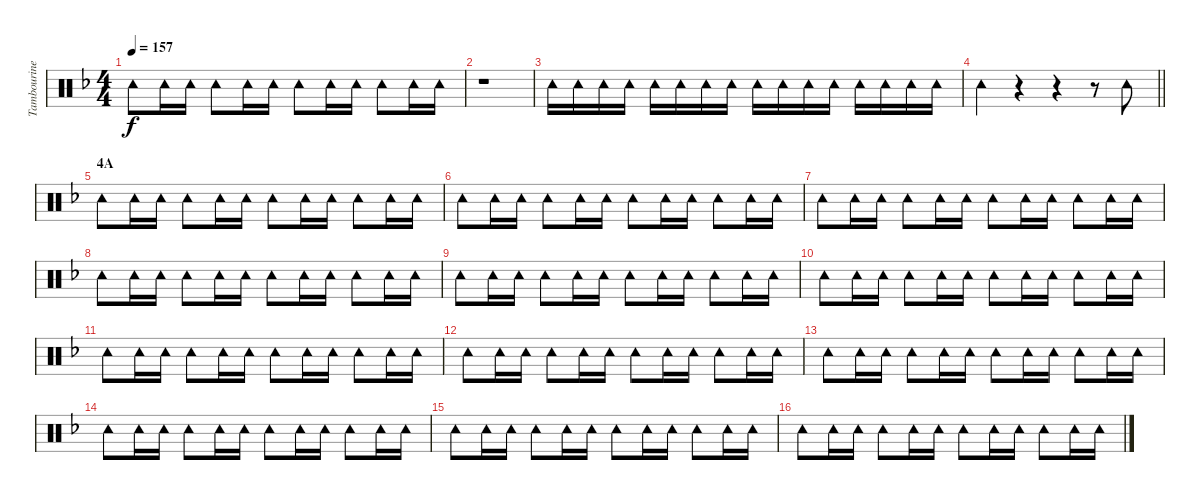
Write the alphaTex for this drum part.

\track ("Tambourine" "Tambourine") {instrument percussion}
\staff {score}
\articulation defaults
\ts (4 4)
\tempo 157
\clef neutral
\ks f "Tambourine (hit)".8{dy f} "Tambourine (hit)".16 "Tambourine (hit)".16 "Tambourine (hit)".8 "Tambourine (hit)".16 "Tambourine (hit)".16 "Tambourine (hit)".8 "Tambourine (hit)".16 "Tambourine (hit)".16 "Tambourine (hit)".8 "Tambourine (hit)".16 "Tambourine (hit)".16
|
r.1 |
"Tambourine (hit)".16 "Tambourine (hit)".16 "Tambourine (hit)".16 "Tambourine (hit)".16 "Tambourine (hit)".16 "Tambourine (hit)".16 "Tambourine (hit)".16 "Tambourine (hit)".16 "Tambourine (hit)".16 "Tambourine (hit)".16 "Tambourine (hit)".16 "Tambourine (hit)".16 "Tambourine (hit)".16 "Tambourine (hit)".16 "Tambourine (hit)".16 "Tambourine (hit)".16 |
\barLineRight lightlight "Tambourine (hit)".4
r.4 r.4 r.8 "Tambourine (hit)".8 |
\section ("" "4A")
"Tambourine (hit)".8 "Tambourine (hit)".16 "Tambourine (hit)".16 "Tambourine (hit)".8 "Tambourine (hit)".16 "Tambourine (hit)".16 "Tambourine (hit)".8 "Tambourine (hit)".16 "Tambourine (hit)".16 "Tambourine (hit)".8 "Tambourine (hit)".16 "Tambourine (hit)".16 |
"Tambourine (hit)".8 "Tambourine (hit)".16 "Tambourine (hit)".16 "Tambourine (hit)".8 "Tambourine (hit)".16 "Tambourine (hit)".16 "Tambourine (hit)".8 "Tambourine (hit)".16 "Tambourine (hit)".16 "Tambourine (hit)".8 "Tambourine (hit)".16 "Tambourine (hit)".16 |
"Tambourine (hit)".8 "Tambourine (hit)".16 "Tambourine (hit)".16 "Tambourine (hit)".8 "Tambourine (hit)".16 "Tambourine (hit)".16 "Tambourine (hit)".8 "Tambourine (hit)".16 "Tambourine (hit)".16 "Tambourine (hit)".8 "Tambourine (hit)".16 "Tambourine (hit)".16 |
"Tambourine (hit)".8 "Tambourine (hit)".16 "Tambourine (hit)".16 "Tambourine (hit)".8 "Tambourine (hit)".16 "Tambourine (hit)".16 "Tambourine (hit)".8 "Tambourine (hit)".16 "Tambourine (hit)".16 "Tambourine (hit)".8 "Tambourine (hit)".16 "Tambourine (hit)".16 |
"Tambourine (hit)".8 "Tambourine (hit)".16 "Tambourine (hit)".16 "Tambourine (hit)".8 "Tambourine (hit)".16 "Tambourine (hit)".16 "Tambourine (hit)".8 "Tambourine (hit)".16 "Tambourine (hit)".16 "Tambourine (hit)".8 "Tambourine (hit)".16 "Tambourine (hit)".16 |
"Tambourine (hit)".8 "Tambourine (hit)".16 "Tambourine (hit)".16 "Tambourine (hit)".8 "Tambourine (hit)".16 "Tambourine (hit)".16 "Tambourine (hit)".8 "Tambourine (hit)".16 "Tambourine (hit)".16 "Tambourine (hit)".8 "Tambourine (hit)".16 "Tambourine (hit)".16 |
"Tambourine (hit)".8 "Tambourine (hit)".16 "Tambourine (hit)".16 "Tambourine (hit)".8 "Tambourine (hit)".16 "Tambourine (hit)".16 "Tambourine (hit)".8 "Tambourine (hit)".16 "Tambourine (hit)".16 "Tambourine (hit)".8 "Tambourine (hit)".16 "Tambourine (hit)".16 |
"Tambourine (hit)".8 "Tambourine (hit)".16 "Tambourine (hit)".16 "Tambourine (hit)".8 "Tambourine (hit)".16 "Tambourine (hit)".16 "Tambourine (hit)".8 "Tambourine (hit)".16 "Tambourine (hit)".16 "Tambourine (hit)".8 "Tambourine (hit)".16 "Tambourine (hit)".16 |
"Tambourine (hit)".8 "Tambourine (hit)".16 "Tambourine (hit)".16 "Tambourine (hit)".8 "Tambourine (hit)".16 "Tambourine (hit)".16 "Tambourine (hit)".8 "Tambourine (hit)".16 "Tambourine (hit)".16 "Tambourine (hit)".8 "Tambourine (hit)".16 "Tambourine (hit)".16 |
"Tambourine (hit)".8 "Tambourine (hit)".16 "Tambourine (hit)".16 "Tambourine (hit)".8 "Tambourine (hit)".16 "Tambourine (hit)".16 "Tambourine (hit)".8 "Tambourine (hit)".16 "Tambourine (hit)".16 "Tambourine (hit)".8 "Tambourine (hit)".16 "Tambourine (hit)".16 |
"Tambourine (hit)".8 "Tambourine (hit)".16 "Tambourine (hit)".16 "Tambourine (hit)".8 "Tambourine (hit)".16 "Tambourine (hit)".16 "Tambourine (hit)".8 "Tambourine (hit)".16 "Tambourine (hit)".16 "Tambourine (hit)".8 "Tambourine (hit)".16 "Tambourine (hit)".16 |
"Tambourine (hit)".8 "Tambourine (hit)".16 "Tambourine (hit)".16 "Tambourine (hit)".8 "Tambourine (hit)".16 "Tambourine (hit)".16 "Tambourine (hit)".8 "Tambourine (hit)".16 "Tambourine (hit)".16 "Tambourine (hit)".8 "Tambourine (hit)".16 "Tambourine (hit)".16
